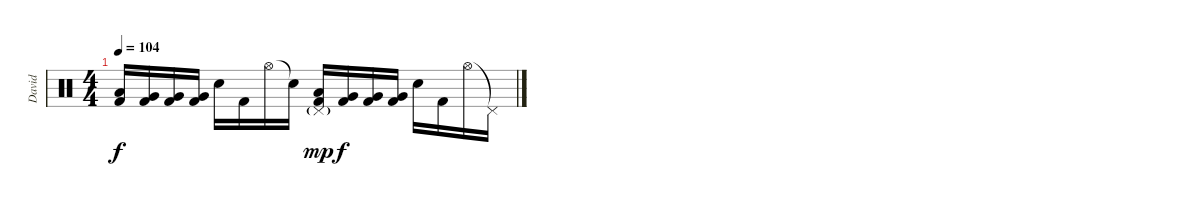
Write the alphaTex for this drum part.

\track ("David" "David") {instrument percussion}
\staff {score}
\articulation defaults
\ts (4 4)
\tempo 104
\clef neutral
\ks c
("Low Tom (hit)" "Kick (hit) 2").16{dy f} ("Very Low Tom (hit)" "Kick (hit) 2").16 ("Very Low Tom (hit)" "Kick (hit) 2").16 ("Very Low Tom (hit)" "Kick (hit) 2").16 "Electric Snare (hit)".16 "Kick (hit) 2".16 "Hi-Hat (open)".16 "Snare (hit)"{t}.16 ("Pedal Hi-Hat (hit)"{g} "Low Tom (hit)" "Kick (hit) 2").16{dy mp} ("Very Low Tom (hit)" "Kick (hit) 2").16{dy f} ("Very Low Tom (hit)" "Kick (hit) 2").16 ("Very Low Tom (hit)" "Kick (hit) 2").16 "Electric Snare (hit)".16 "Kick (hit) 2".16 "Hi-Hat (open)".16 "Pedal Hi-Hat (hit)"{t}.16
